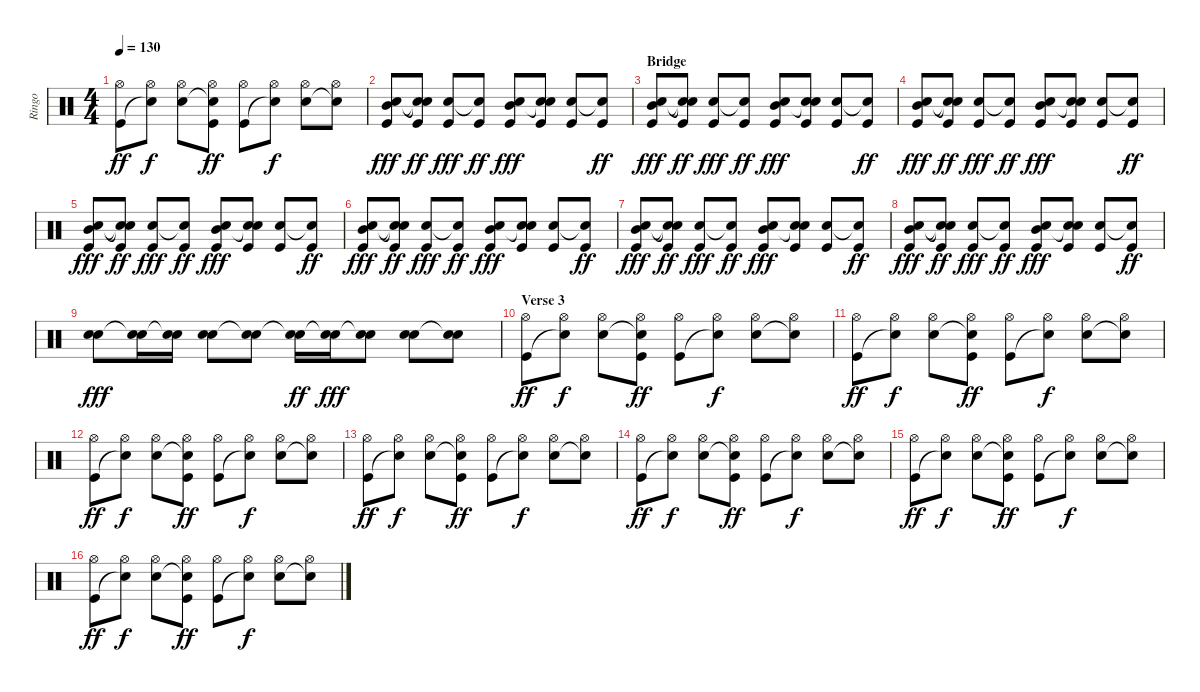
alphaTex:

\track ("Ringo" "Ringo") {instrument percussion}
\staff {score}
\articulation defaults
\ts (4 4)
\tempo 130
\clef neutral
\ks c
("Hi-Hat (open)" "Kick (hit)").8{dy ff} ("Hi-Hat (open)" "Snare (hit)"{t}).8{dy f} ("Hi-Hat (open)" "Snare (hit) 2").8 ("Hi-Hat (open)" "Snare (hit)"{t} "Kick (hit)").8{dy ff} ("Hi-Hat (open)" "Kick (hit)").8 ("Hi-Hat (open)" "Snare (hit)"{t}).8{dy f} ("Hi-Hat (open)" "Snare (hit) 2").8 ("Hi-Hat (open)" "Snare (hit)"{t}).8 |
("Mid Tom (hit)" "Hand Clap (hit)" "Kick (hit)").8{dy fff} ("Snare (hit)"{t} "Snare (hit)"{t} "Kick (hit)").8{dy ff} ("Hand Clap (hit)" "Kick (hit)").8{dy fff} ("Snare (hit)"{t} "Kick (hit)").8{dy ff} ("Mid Tom (hit)" "Hand Clap (hit)" "Kick (hit)").8{dy fff} ("Snare (hit)"{t} "Hand Clap (hit)" "Kick (hit)").8 ("Hand Clap (hit)" "Kick (hit)").8 ("Snare (hit)"{t} "Kick (hit)").8{dy ff} |
\section ("" "Bridge")
("Mid Tom (hit)" "Hand Clap (hit)" "Kick (hit)").8{dy fff} ("Snare (hit)"{t} "Snare (hit)"{t} "Kick (hit)").8{dy ff} ("Hand Clap (hit)" "Kick (hit)").8{dy fff} ("Snare (hit)"{t} "Kick (hit)").8{dy ff} ("Mid Tom (hit)" "Hand Clap (hit)" "Kick (hit)").8{dy fff} ("Snare (hit)"{t} "Hand Clap (hit)" "Kick (hit)").8 ("Hand Clap (hit)" "Kick (hit)").8 ("Snare (hit)"{t} "Kick (hit)").8{dy ff} |
("Mid Tom (hit)" "Hand Clap (hit)" "Kick (hit)").8{dy fff} ("Snare (hit)"{t} "Snare (hit)"{t} "Kick (hit)").8{dy ff} ("Hand Clap (hit)" "Kick (hit)").8{dy fff} ("Snare (hit)"{t} "Kick (hit)").8{dy ff} ("Mid Tom (hit)" "Hand Clap (hit)" "Kick (hit)").8{dy fff} ("Snare (hit)"{t} "Hand Clap (hit)" "Kick (hit)").8 ("Hand Clap (hit)" "Kick (hit)").8 ("Snare (hit)"{t} "Kick (hit)").8{dy ff} |
("Mid Tom (hit)" "Hand Clap (hit)" "Kick (hit)").8{dy fff} ("Snare (hit)"{t} "Snare (hit)"{t} "Kick (hit)").8{dy ff} ("Hand Clap (hit)" "Kick (hit)").8{dy fff} ("Snare (hit)"{t} "Kick (hit)").8{dy ff} ("Mid Tom (hit)" "Hand Clap (hit)" "Kick (hit)").8{dy fff} ("Snare (hit)"{t} "Hand Clap (hit)" "Kick (hit)").8 ("Hand Clap (hit)" "Kick (hit)").8 ("Snare (hit)"{t} "Kick (hit)").8{dy ff} |
("Mid Tom (hit)" "Hand Clap (hit)" "Kick (hit)").8{dy fff} ("Snare (hit)"{t} "Snare (hit)"{t} "Kick (hit)").8{dy ff} ("Hand Clap (hit)" "Kick (hit)").8{dy fff} ("Snare (hit)"{t} "Kick (hit)").8{dy ff} ("Mid Tom (hit)" "Hand Clap (hit)" "Kick (hit)").8{dy fff} ("Snare (hit)"{t} "Hand Clap (hit)" "Kick (hit)").8 ("Hand Clap (hit)" "Kick (hit)").8 ("Snare (hit)"{t} "Kick (hit)").8{dy ff} |
("Mid Tom (hit)" "Hand Clap (hit)" "Kick (hit)").8{dy fff} ("Snare (hit)"{t} "Snare (hit)"{t} "Kick (hit)").8{dy ff} ("Hand Clap (hit)" "Kick (hit)").8{dy fff} ("Snare (hit)"{t} "Kick (hit)").8{dy ff} ("Mid Tom (hit)" "Hand Clap (hit)" "Kick (hit)").8{dy fff} ("Snare (hit)"{t} "Hand Clap (hit)" "Kick (hit)").8 ("Hand Clap (hit)" "Kick (hit)").8 ("Snare (hit)"{t} "Kick (hit)").8{dy ff} |
("Mid Tom (hit)" "Hand Clap (hit)" "Kick (hit)").8{dy fff} ("Snare (hit)"{t} "Snare (hit)"{t} "Kick (hit)").8{dy ff} ("Hand Clap (hit)" "Kick (hit)").8{dy fff} ("Snare (hit)"{t} "Kick (hit)").8{dy ff} ("Mid Tom (hit)" "Hand Clap (hit)" "Kick (hit)").8{dy fff} ("Snare (hit)"{t} "Hand Clap (hit)" "Kick (hit)").8 ("Hand Clap (hit)" "Kick (hit)").8 ("Snare (hit)"{t} "Kick (hit)").8{dy ff} |
("Hand Clap (hit)" "Snare (hit) 2").8{dy fff} ("Snare (hit)"{t} "Snare (hit) 2").16 ("Snare (hit)"{t} "Snare (hit) 2").16 ("Hand Clap (hit)" "Snare (hit) 2").8 ("Hand Clap (hit)"{t} "Snare (hit) 2").8 ("Hand Clap (hit)" "Snare (hit) 2"{t}).16{dy ff} ("Snare (hit)"{t} "Snare (hit) 2").16{dy fff} ("Hand Clap (hit)"{t} "Snare (hit) 2").8 ("Hand Clap (hit)" "Snare (hit) 2").8 ("Hand Clap (hit)"{t} "Snare (hit) 2").8 |
\section ("" "Verse 3")
("Hi-Hat (open)" "Kick (hit)").8{dy ff} ("Hi-Hat (open)" "Snare (hit)"{t}).8{dy f} ("Hi-Hat (open)" "Snare (hit) 2").8 ("Hi-Hat (open)" "Snare (hit)"{t} "Kick (hit)").8{dy ff} ("Hi-Hat (open)" "Kick (hit)").8 ("Hi-Hat (open)" "Snare (hit)"{t}).8{dy f} ("Hi-Hat (open)" "Snare (hit) 2").8 ("Hi-Hat (open)" "Snare (hit)"{t}).8 |
("Hi-Hat (open)" "Kick (hit)").8{dy ff} ("Hi-Hat (open)" "Snare (hit)"{t}).8{dy f} ("Hi-Hat (open)" "Snare (hit) 2").8 ("Hi-Hat (open)" "Snare (hit)"{t} "Kick (hit)").8{dy ff} ("Hi-Hat (open)" "Kick (hit)").8 ("Hi-Hat (open)" "Snare (hit)"{t}).8{dy f} ("Hi-Hat (open)" "Snare (hit) 2").8 ("Hi-Hat (open)" "Snare (hit)"{t}).8 |
("Hi-Hat (open)" "Kick (hit)").8{dy ff} ("Hi-Hat (open)" "Snare (hit)"{t}).8{dy f} ("Hi-Hat (open)" "Snare (hit) 2").8 ("Hi-Hat (open)" "Snare (hit)"{t} "Kick (hit)").8{dy ff} ("Hi-Hat (open)" "Kick (hit)").8 ("Hi-Hat (open)" "Snare (hit)"{t}).8{dy f} ("Hi-Hat (open)" "Snare (hit) 2").8 ("Hi-Hat (open)" "Snare (hit)"{t}).8 |
("Hi-Hat (open)" "Kick (hit)").8{dy ff} ("Hi-Hat (open)" "Snare (hit)"{t}).8{dy f} ("Hi-Hat (open)" "Snare (hit) 2").8 ("Hi-Hat (open)" "Snare (hit)"{t} "Kick (hit)").8{dy ff} ("Hi-Hat (open)" "Kick (hit)").8 ("Hi-Hat (open)" "Snare (hit)"{t}).8{dy f} ("Hi-Hat (open)" "Snare (hit) 2").8 ("Hi-Hat (open)" "Snare (hit)"{t}).8 |
("Hi-Hat (open)" "Kick (hit)").8{dy ff} ("Hi-Hat (open)" "Snare (hit)"{t}).8{dy f} ("Hi-Hat (open)" "Snare (hit) 2").8 ("Hi-Hat (open)" "Snare (hit)"{t} "Kick (hit)").8{dy ff} ("Hi-Hat (open)" "Kick (hit)").8 ("Hi-Hat (open)" "Snare (hit)"{t}).8{dy f} ("Hi-Hat (open)" "Snare (hit) 2").8 ("Hi-Hat (open)" "Snare (hit)"{t}).8 |
("Hi-Hat (open)" "Kick (hit)").8{dy ff} ("Hi-Hat (open)" "Snare (hit)"{t}).8{dy f} ("Hi-Hat (open)" "Snare (hit) 2").8 ("Hi-Hat (open)" "Snare (hit)"{t} "Kick (hit)").8{dy ff} ("Hi-Hat (open)" "Kick (hit)").8 ("Hi-Hat (open)" "Snare (hit)"{t}).8{dy f} ("Hi-Hat (open)" "Snare (hit) 2").8 ("Hi-Hat (open)" "Snare (hit)"{t}).8 |
("Hi-Hat (open)" "Kick (hit)").8{dy ff} ("Hi-Hat (open)" "Snare (hit)"{t}).8{dy f} ("Hi-Hat (open)" "Snare (hit) 2").8 ("Hi-Hat (open)" "Snare (hit)"{t} "Kick (hit)").8{dy ff} ("Hi-Hat (open)" "Kick (hit)").8 ("Hi-Hat (open)" "Snare (hit)"{t}).8{dy f} ("Hi-Hat (open)" "Snare (hit) 2").8 ("Hi-Hat (open)" "Snare (hit)"{t}).8
